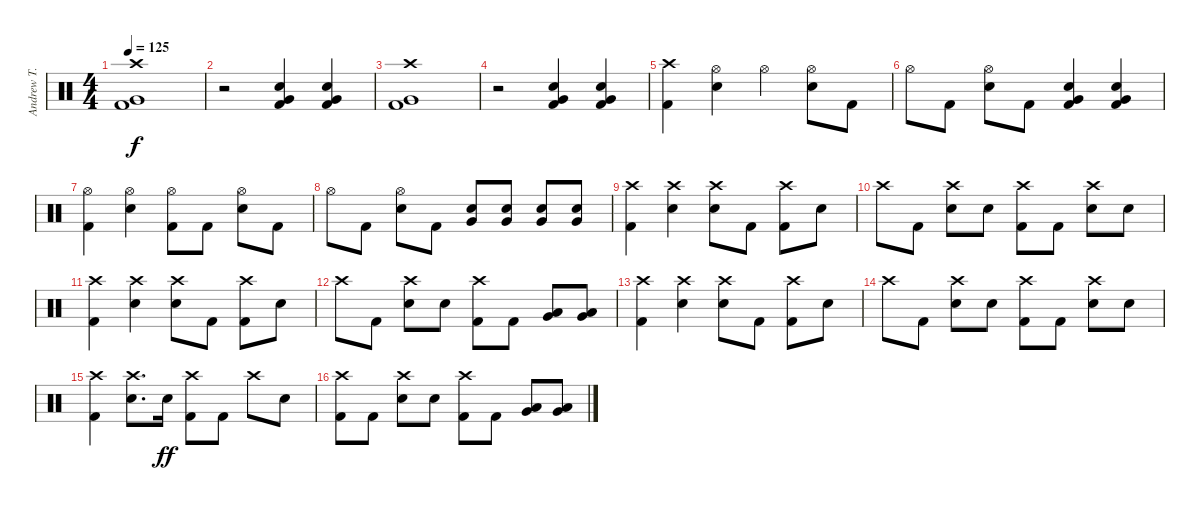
\track ("Andrew T." "Andrew T.") {instrument percussion}
\staff {score}
\articulation defaults
\ts (4 4)
\tempo 125
\clef neutral
\ks c
("Crash high (hit)" "Very Low Tom (hit)" "Kick (hit) 2").1{dy f} |
r.2 ("Kick (hit) 2" "Electric Snare (hit)" "Very Low Tom (hit)").4 ("Kick (hit) 2" "Electric Snare (hit)" "Very Low Tom (hit)").4 |
("Crash high (hit)" "Very Low Tom (hit)" "Kick (hit) 2").1 |
r.2 ("Kick (hit) 2" "Electric Snare (hit)" "Very Low Tom (hit)").4 ("Kick (hit) 2" "Electric Snare (hit)" "Very Low Tom (hit)").4 |
("Crash high (hit)" "Kick (hit) 2").4 ("Hi-Hat (open)" "Electric Snare (hit)").4 "Hi-Hat (open)".4 ("Hi-Hat (open)" "Electric Snare (hit)").8 "Kick (hit) 2".8 |
"Hi-Hat (open)".8 "Kick (hit) 2".8 ("Hi-Hat (open)" "Electric Snare (hit)").8 "Kick (hit) 2".8 ("Kick (hit) 2" "Electric Snare (hit)" "Very Low Tom (hit)").4 ("Kick (hit) 2" "Electric Snare (hit)" "Very Low Tom (hit)").4 |
("Hi-Hat (open)" "Kick (hit) 2").4 ("Hi-Hat (open)" "Electric Snare (hit)").4 ("Hi-Hat (open)" "Kick (hit) 2").8 "Kick (hit) 2".8 ("Hi-Hat (open)" "Electric Snare (hit)").8 "Kick (hit) 2".8 |
"Hi-Hat (open)".8 "Kick (hit) 2".8 ("Hi-Hat (open)" "Electric Snare (hit)").8 "Kick (hit) 2".8 ("Electric Snare (hit)" "Very Low Tom (hit)").8 ("Electric Snare (hit)" "Very Low Tom (hit)").8 ("Electric Snare (hit)" "Very Low Tom (hit)").8 ("Electric Snare (hit)" "Very Low Tom (hit)").8 |
("Crash high (hit)" "Kick (hit) 2").4 ("Crash high (hit)" "Electric Snare (hit)").4 ("Crash high (hit)" "Electric Snare (hit)").8 "Kick (hit) 2".8 ("Crash high (hit)" "Kick (hit) 2").8 "Electric Snare (hit)".8 |
"Crash high (hit)".8 "Kick (hit) 2".8 ("Crash high (hit)" "Electric Snare (hit)").8 "Electric Snare (hit)".8 ("Crash high (hit)" "Kick (hit) 2").8 "Kick (hit) 2".8 ("Crash high (hit)" "Electric Snare (hit)").8 "Electric Snare (hit)".8 |
("Crash high (hit)" "Kick (hit) 2").4 ("Crash high (hit)" "Electric Snare (hit)").4 ("Crash high (hit)" "Electric Snare (hit)").8 "Kick (hit) 2".8 ("Crash high (hit)" "Kick (hit) 2").8 "Electric Snare (hit)".8 |
"Crash high (hit)".8 "Kick (hit) 2".8 ("Crash high (hit)" "Electric Snare (hit)").8 "Electric Snare (hit)".8 ("Crash high (hit)" "Kick (hit) 2").8 "Kick (hit) 2".8 ("Low Tom (hit)" "Very Low Tom (hit)").8 ("Low Tom (hit)" "Very Low Tom (hit)").8 |
("Crash high (hit)" "Kick (hit) 2").4 ("Crash high (hit)" "Electric Snare (hit)").4 ("Crash high (hit)" "Electric Snare (hit)").8 "Kick (hit) 2".8 ("Crash high (hit)" "Kick (hit) 2").8 "Electric Snare (hit)".8 |
"Crash high (hit)".8 "Kick (hit) 2".8 ("Crash high (hit)" "Electric Snare (hit)").8 "Electric Snare (hit)".8 ("Crash high (hit)" "Kick (hit) 2").8 "Kick (hit) 2".8 ("Crash high (hit)" "Electric Snare (hit)").8 "Electric Snare (hit)".8 |
("Crash high (hit)" "Kick (hit) 2").4 ("Crash high (hit)" "Electric Snare (hit)").8{d} "Electric Snare (hit)".16{dy ff} ("Crash high (hit)" "Kick (hit) 2").8 "Kick (hit) 2".8 "Crash high (hit)".8 "Electric Snare (hit)".8 |
("Crash high (hit)" "Kick (hit) 2").8 "Kick (hit) 2".8 ("Crash high (hit)" "Electric Snare (hit)").8 "Electric Snare (hit)".8 ("Crash high (hit)" "Kick (hit) 2").8 "Kick (hit) 2".8 ("Very Low Tom (hit)" "Low Tom (hit)").8 ("Very Low Tom (hit)" "Low Tom (hit)").8
